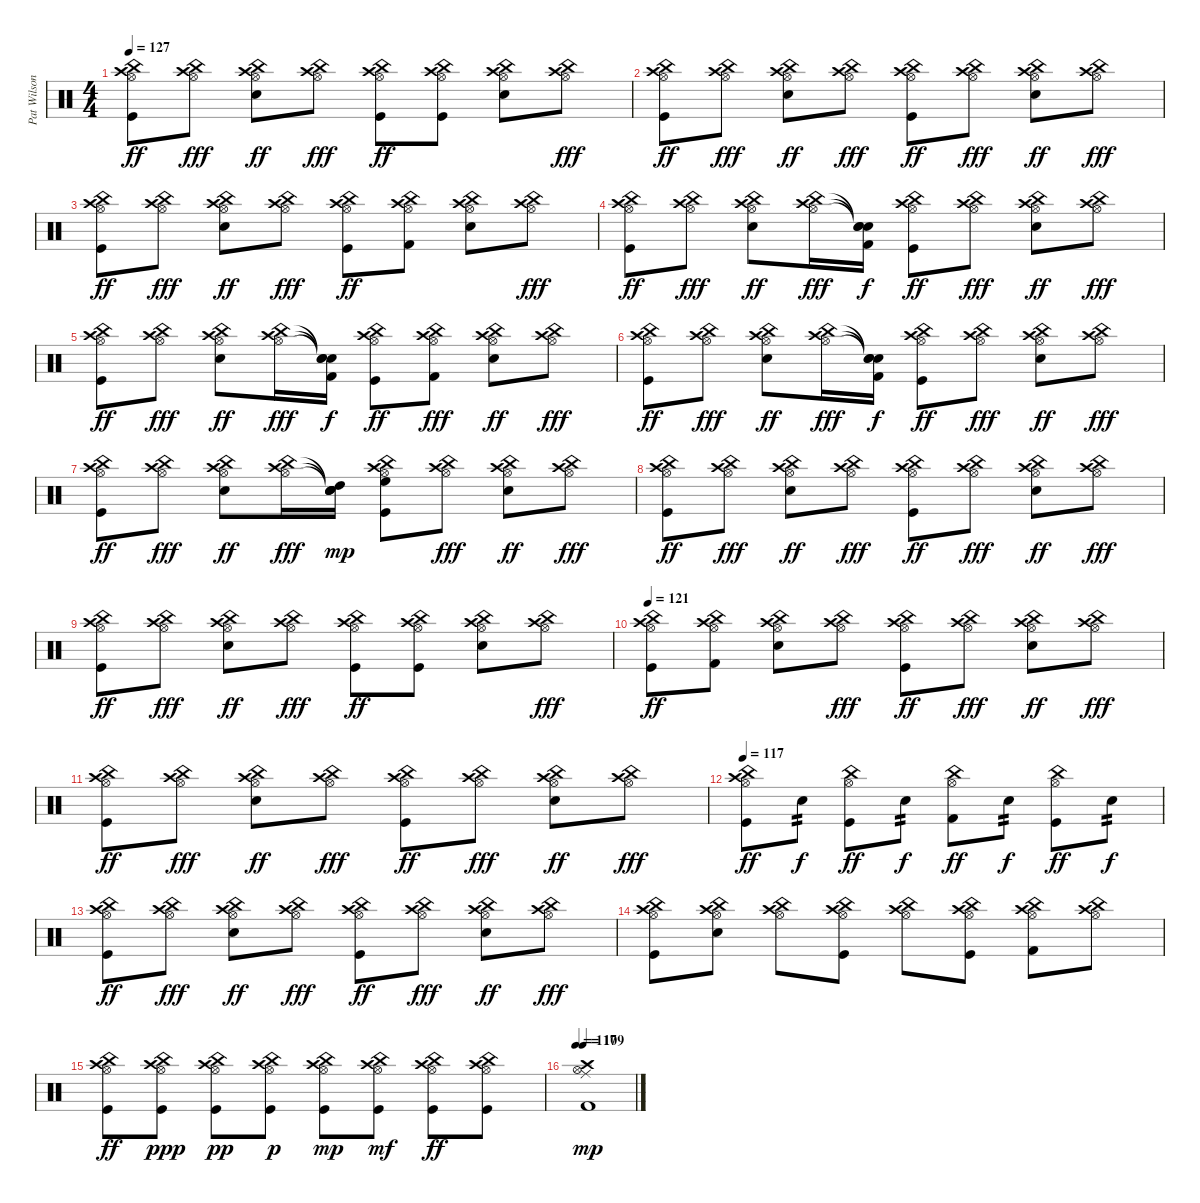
\track ("Pat Wilson" "Pat Wilson") {instrument percussion}
\staff {score}
\articulation defaults
\ts (4 4)
\tempo 127
\clef neutral
\ks c
("Crash high (hit)" "Hi-Hat (open)" "China (hit)" "Kick (hit)").8{dy ff} ("Crash high (hit)" "Hi-Hat (open)" "China (hit)").8{dy fff} ("Crash high (hit)" "Hi-Hat (open)" "China (hit)" "Electric Snare (hit)").8{dy ff} ("Crash high (hit)" "Hi-Hat (open)" "China (hit)").8{dy fff} ("Crash high (hit)" "Hi-Hat (open)" "China (hit)" "Kick (hit)").8{dy ff} ("Crash high (hit)" "Hi-Hat (open)" "China (hit)" "Kick (hit)").8 ("Crash high (hit)" "Hi-Hat (open)" "China (hit)" "Electric Snare (hit)").8 ("Crash high (hit)" "Hi-Hat (open)" "China (hit)").8{dy fff} |
("Crash high (hit)" "Hi-Hat (open)" "China (hit)" "Kick (hit)").8{dy ff} ("Crash high (hit)" "Hi-Hat (open)" "China (hit)").8{dy fff} ("Crash high (hit)" "Hi-Hat (open)" "China (hit)" "Electric Snare (hit)").8{dy ff} ("Crash high (hit)" "Hi-Hat (open)" "China (hit)").8{dy fff} ("Crash high (hit)" "Hi-Hat (open)" "China (hit)" "Kick (hit)").8{dy ff} ("Crash high (hit)" "Hi-Hat (open)" "China (hit)").8{dy fff} ("Crash high (hit)" "Hi-Hat (open)" "China (hit)" "Electric Snare (hit)").8{dy ff} ("Crash high (hit)" "Hi-Hat (open)" "China (hit)").8{dy fff} |
("Crash high (hit)" "Hi-Hat (open)" "China (hit)" "Kick (hit)").8{dy ff} ("Crash high (hit)" "Hi-Hat (open)" "China (hit)").8{dy fff} ("Crash high (hit)" "Hi-Hat (open)" "China (hit)" "Electric Snare (hit)").8{dy ff} ("Crash high (hit)" "Hi-Hat (open)" "China (hit)").8{dy fff} ("Crash high (hit)" "Hi-Hat (open)" "China (hit)" "Kick (hit)").8{dy ff} ("Crash high (hit)" "Hi-Hat (open)" "China (hit)" "Kick (hit) 2").8 ("Crash high (hit)" "Hi-Hat (open)" "China (hit)" "Electric Snare (hit)").8 ("Crash high (hit)" "Hi-Hat (open)" "China (hit)").8{dy fff} |
("Crash high (hit)" "Hi-Hat (open)" "China (hit)" "Kick (hit)").8{dy ff} ("Crash high (hit)" "Hi-Hat (open)" "China (hit)").8{dy fff} ("Crash high (hit)" "Hi-Hat (open)" "China (hit)" "Electric Snare (hit)").8{dy ff} ("Crash high (hit)" "Hi-Hat (open)" "China (hit)").16{dy fff} ("Snare (hit)"{t} "Snare (hit)"{t} "Snare (hit)"{t} "Kick (hit) 2").16{dy f} ("Crash high (hit)" "Hi-Hat (open)" "China (hit)" "Kick (hit)").8{dy ff} ("Crash high (hit)" "Hi-Hat (open)" "China (hit)").8{dy fff} ("Crash high (hit)" "Hi-Hat (open)" "China (hit)" "Electric Snare (hit)").8{dy ff} ("Crash high (hit)" "Hi-Hat (open)" "China (hit)").8{dy fff} |
("Crash high (hit)" "Hi-Hat (open)" "China (hit)" "Kick (hit)").8{dy ff} ("Crash high (hit)" "Hi-Hat (open)" "China (hit)").8{dy fff} ("Crash high (hit)" "Hi-Hat (open)" "China (hit)" "Electric Snare (hit)").8{dy ff} ("Crash high (hit)" "Hi-Hat (open)" "China (hit)").16{dy fff} ("Snare (hit)"{t} "Snare (hit)"{t} "Snare (hit)"{t} "Kick (hit) 2").16{dy f} ("Crash high (hit)" "Hi-Hat (open)" "China (hit)" "Kick (hit)").8{dy ff} ("Crash high (hit)" "Hi-Hat (open)" "China (hit)" "Kick (hit) 2").8{dy fff} ("Crash high (hit)" "Hi-Hat (open)" "China (hit)" "Electric Snare (hit)").8{dy ff} ("Crash high (hit)" "Hi-Hat (open)" "China (hit)").8{dy fff} |
("Crash high (hit)" "Hi-Hat (open)" "China (hit)" "Kick (hit)").8{dy ff} ("Crash high (hit)" "Hi-Hat (open)" "China (hit)").8{dy fff} ("Crash high (hit)" "Hi-Hat (open)" "China (hit)" "Electric Snare (hit)").8{dy ff} ("Crash high (hit)" "Hi-Hat (open)" "China (hit)").16{dy fff} ("Snare (hit)"{t} "Snare (hit)"{t} "Snare (hit)"{t} "Kick (hit) 2").16{dy f} ("Crash high (hit)" "Hi-Hat (open)" "China (hit)" "Kick (hit)").8{dy ff} ("Crash high (hit)" "Hi-Hat (open)" "China (hit)").8{dy fff} ("Crash high (hit)" "Hi-Hat (open)" "China (hit)" "Electric Snare (hit)").8{dy ff} ("Crash high (hit)" "Hi-Hat (open)" "China (hit)").8{dy fff} |
("Crash high (hit)" "Hi-Hat (open)" "China (hit)" "Kick (hit)").8{dy ff} ("Crash high (hit)" "Hi-Hat (open)" "China (hit)").8{dy fff} ("Crash high (hit)" "Hi-Hat (open)" "China (hit)" "Electric Snare (hit)").8{dy ff} ("Crash high (hit)" "Hi-Hat (open)" "China (hit)").16{dy fff} ("Snare (hit)"{t} "Snare (hit)"{t} "Snare (hit)"{t} "High Tom (hit)").16{dy mp} ("Crash high (hit)" "Hi-Hat (open)" "China (hit)" "Kick (hit)" "High Floor Tom (hit)").8 ("Crash high (hit)" "Hi-Hat (open)" "China (hit)").8{dy fff} ("Crash high (hit)" "Hi-Hat (open)" "China (hit)" "Electric Snare (hit)").8{dy ff} ("Crash high (hit)" "Hi-Hat (open)" "China (hit)").8{dy fff} |
("Crash high (hit)" "Hi-Hat (open)" "China (hit)" "Kick (hit)").8{dy ff} ("Crash high (hit)" "Hi-Hat (open)" "China (hit)").8{dy fff} ("Crash high (hit)" "Hi-Hat (open)" "China (hit)" "Electric Snare (hit)").8{dy ff} ("Crash high (hit)" "Hi-Hat (open)" "China (hit)").8{dy fff} ("Crash high (hit)" "Hi-Hat (open)" "China (hit)" "Kick (hit)").8{dy ff} ("Crash high (hit)" "Hi-Hat (open)" "China (hit)").8{dy fff} ("Crash high (hit)" "Hi-Hat (open)" "China (hit)" "Electric Snare (hit)").8{dy ff} ("Crash high (hit)" "Hi-Hat (open)" "China (hit)").8{dy fff} |
("Crash high (hit)" "Hi-Hat (open)" "China (hit)" "Kick (hit)").8{dy ff} ("Crash high (hit)" "Hi-Hat (open)" "China (hit)").8{dy fff} ("Crash high (hit)" "Hi-Hat (open)" "China (hit)" "Electric Snare (hit)").8{dy ff} ("Crash high (hit)" "Hi-Hat (open)" "China (hit)").8{dy fff} ("Crash high (hit)" "Hi-Hat (open)" "China (hit)" "Kick (hit)").8{dy ff} ("Crash high (hit)" "Hi-Hat (open)" "China (hit)" "Kick (hit)").8 ("Crash high (hit)" "Hi-Hat (open)" "China (hit)" "Electric Snare (hit)").8 ("Crash high (hit)" "Hi-Hat (open)" "China (hit)").8{dy fff} |
\tempo 121
("Crash high (hit)" "Hi-Hat (open)" "China (hit)" "Kick (hit)").8{dy ff} ("Crash high (hit)" "Hi-Hat (open)" "China (hit)" "Kick (hit) 2").8 ("Crash high (hit)" "Hi-Hat (open)" "China (hit)" "Electric Snare (hit)").8 ("Crash high (hit)" "Hi-Hat (open)" "China (hit)").8{dy fff} ("Crash high (hit)" "Hi-Hat (open)" "China (hit)" "Kick (hit)").8{dy ff} ("Crash high (hit)" "Hi-Hat (open)" "China (hit)").8{dy fff} ("Crash high (hit)" "Hi-Hat (open)" "China (hit)" "Electric Snare (hit)").8{dy ff} ("Crash high (hit)" "Hi-Hat (open)" "China (hit)").8{dy fff} |
("Crash high (hit)" "Hi-Hat (open)" "China (hit)" "Kick (hit)").8{dy ff} ("Crash high (hit)" "Hi-Hat (open)" "China (hit)").8{dy fff} ("Crash high (hit)" "Hi-Hat (open)" "China (hit)" "Electric Snare (hit)").8{dy ff} ("Crash high (hit)" "Hi-Hat (open)" "China (hit)").8{dy fff} ("Crash high (hit)" "Hi-Hat (open)" "China (hit)" "Kick (hit)").8{dy ff} ("Crash high (hit)" "Hi-Hat (open)" "China (hit)").8{dy fff} ("Crash high (hit)" "Hi-Hat (open)" "China (hit)" "Electric Snare (hit)").8{dy ff} ("Crash high (hit)" "Hi-Hat (open)" "China (hit)").8{dy fff} |
\tempo 117
("Crash high (hit)" "Hi-Hat (open)" "China (hit)" "Kick (hit)").8{dy ff} "Snare (hit) 2".8{tp 2 dy f} ("Hi-Hat (open)" "China (hit)" "Kick (hit)").8{dy ff} "Snare (hit) 2".8{tp 2 dy f} ("Hi-Hat (open)" "China (hit)" "Kick (hit) 2").8{dy ff} "Snare (hit) 2".8{tp 2 dy f} ("Hi-Hat (open)" "China (hit)" "Kick (hit)").8{dy ff} "Snare (hit) 2".8{tp 2 dy f} |
("Crash high (hit)" "Hi-Hat (open)" "China (hit)" "Kick (hit)").8{dy ff} ("Crash high (hit)" "Hi-Hat (open)" "China (hit)").8{dy fff} ("Crash high (hit)" "Hi-Hat (open)" "China (hit)" "Electric Snare (hit)").8{dy ff} ("Crash high (hit)" "Hi-Hat (open)" "China (hit)").8{dy fff} ("Crash high (hit)" "Hi-Hat (open)" "China (hit)" "Kick (hit)").8{dy ff} ("Crash high (hit)" "Hi-Hat (open)" "China (hit)").8{dy fff} ("Crash high (hit)" "Hi-Hat (open)" "China (hit)" "Electric Snare (hit)").8{dy ff} ("Crash high (hit)" "Hi-Hat (open)" "China (hit)").8{dy fff} |
("Crash high (hit)" "Hi-Hat (open)" "China (hit)" "Kick (hit)").8 ("Crash high (hit)" "Hi-Hat (open)" "China (hit)" "Snare (hit) 2").8 ("Crash high (hit)" "Hi-Hat (open)" "China (hit)").8 ("Crash high (hit)" "Hi-Hat (open)" "China (hit)" "Kick (hit)").8 ("Crash high (hit)" "Hi-Hat (open)" "China (hit)").8 ("Crash high (hit)" "Hi-Hat (open)" "China (hit)" "Kick (hit)").8 ("Crash high (hit)" "Hi-Hat (open)" "China (hit)" "Kick (hit) 2").8 ("Crash high (hit)" "Hi-Hat (open)" "China (hit)").8 |
("Crash high (hit)" "Hi-Hat (open)" "China (hit)" "Kick (hit)").8{dy ff} ("Crash high (hit)" "Hi-Hat (open)" "China (hit)" "Kick (hit)").8{dy ppp} ("Crash high (hit)" "Hi-Hat (open)" "China (hit)" "Kick (hit)").8{dy pp} ("Crash high (hit)" "Hi-Hat (open)" "China (hit)" "Kick (hit)").8{dy p} ("Crash high (hit)" "Hi-Hat (open)" "China (hit)" "Kick (hit)").8{dy mp} ("Crash high (hit)" "Hi-Hat (open)" "China (hit)" "Kick (hit)").8{dy mf} ("Crash high (hit)" "Hi-Hat (open)" "China (hit)" "Kick (hit)").8{dy ff} ("Crash high (hit)" "Hi-Hat (open)" "China (hit)" "Kick (hit)").8 |
\tempo 117
\tempo (109 0.125)
("Crash high (hit)" "Ride (middle)" "Kick (hit) 2" "Hi-Hat (open)").1{dy mp}
